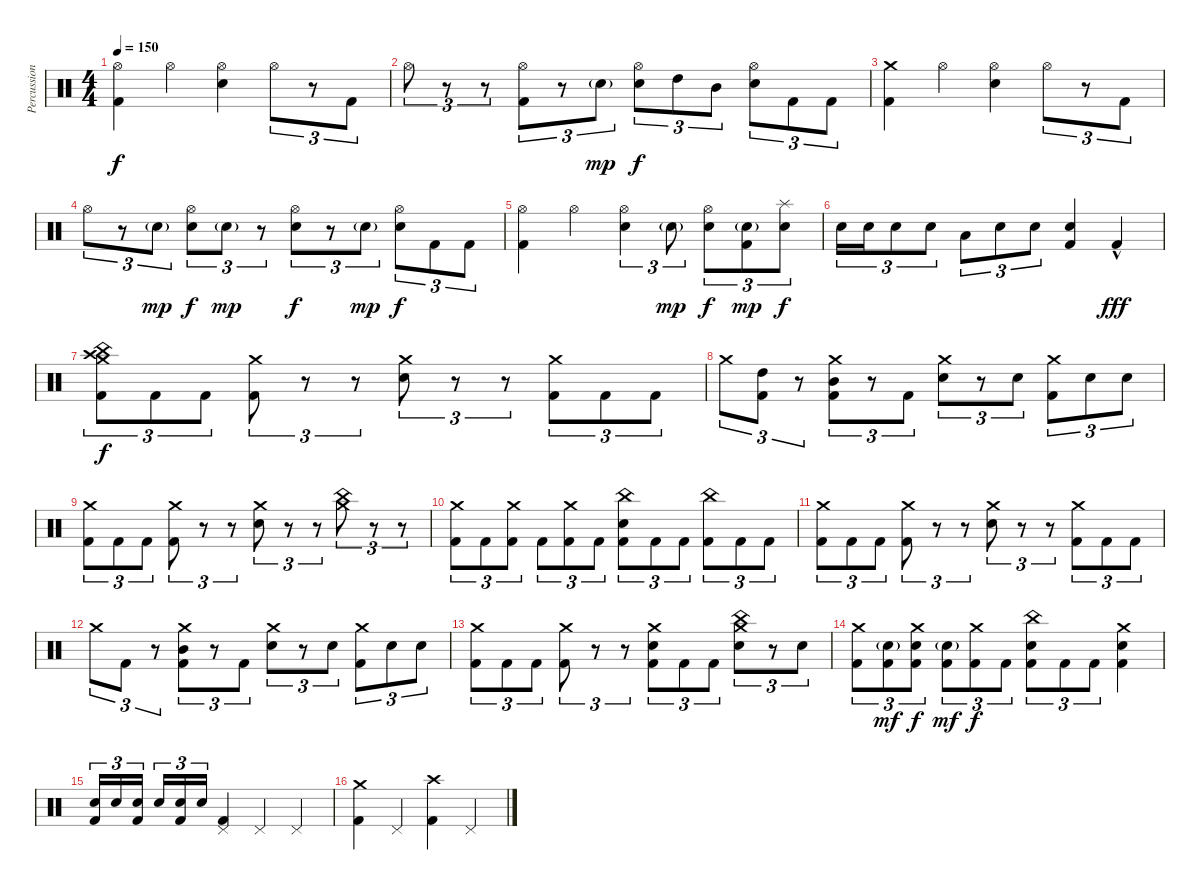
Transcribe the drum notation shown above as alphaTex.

\track ("Percussion" "Percussion") {instrument percussion}
\staff {score}
\articulation defaults
\ts (4 4)
\tempo 150
\clef neutral
\ks c
("Hi-Hat (open)" "Kick (hit) 2").4{dy f} "Hi-Hat (open)".4 ("Hi-Hat (open)" "Electric Snare (hit)").4 "Hi-Hat (open)".8{tu (3 2)} r.8{tu (3 2)} "Kick (hit) 2".8{tu (3 2)} |
"Hi-Hat (open)".8{tu (3 2)} r.8{tu (3 2)} r.8{tu (3 2)} ("Hi-Hat (open)" "Kick (hit) 2").8{tu (3 2)} r.8{tu (3 2)} "Electric Snare (hit)"{g}.8{tu (3 2) dy mp} ("Hi-Hat (open)" "Electric Snare (hit)").8{tu (3 2) dy f} "High Tom (hit)".8{tu (3 2)} "Mid Tom (hit)".8{tu (3 2)} ("Hi-Hat (open)" "Electric Snare (hit)").8{tu (3 2)} "Kick (hit) 2".8{tu (3 2)} "Kick (hit) 2".8{tu (3 2)} |
("Crash medium (hit)" "Kick (hit) 2").4 "Hi-Hat (open)".4 ("Hi-Hat (open)" "Electric Snare (hit)").4 "Hi-Hat (open)".8{tu (3 2)} r.8{tu (3 2)} "Kick (hit) 2".8{tu (3 2)} |
"Hi-Hat (open)".8{tu (3 2)} r.8{tu (3 2)} "Electric Snare (hit)"{g}.8{tu (3 2) dy mp} ("Hi-Hat (open)" "Electric Snare (hit)").8{tu (3 2) dy f} "Electric Snare (hit)"{g}.8{tu (3 2) dy mp} r.8{tu (3 2)} ("Hi-Hat (open)" "Electric Snare (hit)").8{tu (3 2) dy f} r.8{tu (3 2)} "Electric Snare (hit)"{g}.8{tu (3 2) dy mp} ("Hi-Hat (open)" "Electric Snare (hit)").8{tu (3 2) dy f} "Kick (hit) 2".8{tu (3 2)} "Kick (hit) 2".8{tu (3 2)} |
("Hi-Hat (open)" "Kick (hit) 2").4 "Hi-Hat (open)".4 ("Hi-Hat (open)" "Electric Snare (hit)").4{tu (3 2)} "Electric Snare (hit)"{g}.8{tu (3 2) dy mp} ("Hi-Hat (open)" "Electric Snare (hit)").8{tu (3 2) dy f} ("Electric Snare (hit)"{g} "Kick (hit) 2").8{tu (3 2) dy mp} ("Splash (hit)" "Electric Snare (hit)").8{tu (3 2) dy f} |
"Electric Snare (hit)".16{tu (3 2)} "Electric Snare (hit)".16{tu (3 2)} "Electric Snare (hit)".8{tu (3 2)} "Electric Snare (hit)".8{tu (3 2)} "Low Tom (hit)".8{tu (3 2)} "Electric Snare (hit)".8{tu (3 2)} "Electric Snare (hit)".8{tu (3 2)} ("Electric Snare (hit)" "Kick (hit) 2").4 "Kick (hit) 2"{hac}.4{dy fff} |
("Crash medium (hit)" "China (hit)" "Crash high (hit)" "Kick (hit) 2").8{tu (3 2) dy f} "Kick (hit) 2".8{tu (3 2)} "Kick (hit) 2".8{tu (3 2)} ("Crash medium (hit)" "Kick (hit) 2").8{tu (3 2)} r.8{tu (3 2)} r.8{tu (3 2)} ("Crash medium (hit)" "Electric Snare (hit)").8{tu (3 2)} r.8{tu (3 2)} r.8{tu (3 2)} ("Crash medium (hit)" "Kick (hit) 2").8{tu (3 2)} "Kick (hit) 2".8{tu (3 2)} "Kick (hit) 2".8{tu (3 2)} |
"Crash medium (hit)".8{tu (3 2)} ("High Tom (hit)" "Kick (hit) 2").8{tu (3 2)} r.8{tu (3 2)} ("Crash medium (hit)" "Mid Tom (hit)" "Kick (hit) 2").8{tu (3 2)} r.8{tu (3 2)} "Kick (hit) 2".8{tu (3 2)} ("Crash medium (hit)" "Electric Snare (hit)").8{tu (3 2)} r.8{tu (3 2)} "Electric Snare (hit)".8{tu (3 2)} ("Crash medium (hit)" "Kick (hit) 2").8{tu (3 2)} "Electric Snare (hit)".8{tu (3 2)} "Electric Snare (hit)".8{tu (3 2)} |
("Crash medium (hit)" "Kick (hit) 2").8{tu (3 2)} "Kick (hit) 2".8{tu (3 2)} "Kick (hit) 2".8{tu (3 2)} ("Crash medium (hit)" "Kick (hit) 2").8{tu (3 2)} r.8{tu (3 2)} r.8{tu (3 2)} ("Crash medium (hit)" "Electric Snare (hit)").8{tu (3 2)} r.8{tu (3 2)} r.8{tu (3 2)} ("Crash medium (hit)" "China (hit)").8{tu (3 2)} r.8{tu (3 2)} r.8{tu (3 2)} |
("Crash medium (hit)" "Kick (hit) 2").8{tu (3 2)} "Kick (hit) 2".8{tu (3 2)} ("Crash medium (hit)" "Kick (hit) 2").8{tu (3 2)} "Kick (hit) 2".8{tu (3 2)} ("Crash medium (hit)" "Kick (hit) 2").8{tu (3 2)} "Kick (hit) 2".8{tu (3 2)} ("China (hit)" "Electric Snare (hit)" "Kick (hit) 2").8{tu (3 2)} "Kick (hit) 2".8{tu (3 2)} "Kick (hit) 2".8{tu (3 2)} ("China (hit)" "Kick (hit) 2").8{tu (3 2)} "Kick (hit) 2".8{tu (3 2)} "Kick (hit) 2".8{tu (3 2)} |
("Crash medium (hit)" "Kick (hit) 2").8{tu (3 2)} "Kick (hit) 2".8{tu (3 2)} "Kick (hit) 2".8{tu (3 2)} ("Crash medium (hit)" "Kick (hit) 2").8{tu (3 2)} r.8{tu (3 2)} r.8{tu (3 2)} ("Crash medium (hit)" "Electric Snare (hit)").8{tu (3 2)} r.8{tu (3 2)} r.8{tu (3 2)} ("Crash medium (hit)" "Kick (hit) 2").8{tu (3 2)} "Kick (hit) 2".8{tu (3 2)} "Kick (hit) 2".8{tu (3 2)} |
"Crash medium (hit)".8{tu (3 2)} "Kick (hit) 2".8{tu (3 2)} r.8{tu (3 2)} ("Crash medium (hit)" "Mid Tom (hit)" "Kick (hit) 2").8{tu (3 2)} r.8{tu (3 2)} "Kick (hit) 2".8{tu (3 2)} ("Crash medium (hit)" "Electric Snare (hit)").8{tu (3 2)} r.8{tu (3 2)} "Electric Snare (hit)".8{tu (3 2)} ("Crash medium (hit)" "Kick (hit) 2").8{tu (3 2)} "Electric Snare (hit)".8{tu (3 2)} "Electric Snare (hit)".8{tu (3 2)} |
("Crash medium (hit)" "Kick (hit) 2").8{tu (3 2)} "Kick (hit) 2".8{tu (3 2)} "Kick (hit) 2".8{tu (3 2)} ("Crash medium (hit)" "Kick (hit) 2").8{tu (3 2)} r.8{tu (3 2)} r.8{tu (3 2)} ("Crash medium (hit)" "Electric Snare (hit)" "Kick (hit) 2").8{tu (3 2)} "Kick (hit) 2".8{tu (3 2)} "Kick (hit) 2".8{tu (3 2)} ("Crash medium (hit)" "China (hit)" "Electric Snare (hit)").8{tu (3 2)} r.8{tu (3 2)} "Electric Snare (hit)".8{tu (3 2)} |
("Crash medium (hit)" "Kick (hit) 2").8{tu (3 2)} ("Electric Snare (hit)"{g} "Kick (hit) 2").8{tu (3 2) dy mf} ("Crash medium (hit)" "Electric Snare (hit)" "Kick (hit) 2").8{tu (3 2) dy f} ("Electric Snare (hit)"{g} "Kick (hit) 2").8{tu (3 2) dy mf} ("Crash medium (hit)" "Kick (hit) 2").8{tu (3 2) dy f} "Kick (hit) 2".8{tu (3 2)} ("China (hit)" "Electric Snare (hit)" "Kick (hit) 2").8{tu (3 2)} "Kick (hit) 2".8{tu (3 2)} "Kick (hit) 2".8{tu (3 2)} ("Crash medium (hit)" "Electric Snare (hit)" "Kick (hit) 2").4 |
("Electric Snare (hit)" "Kick (hit) 2").16{tu (3 2)} "Electric Snare (hit)".16{tu (3 2)} ("Electric Snare (hit)" "Kick (hit) 2").16{tu (3 2) beam splitsecondary} "Electric Snare (hit)".16{tu (3 2)} ("Electric Snare (hit)" "Kick (hit) 2").16{tu (3 2)} "Electric Snare (hit)".16{tu (3 2)} ("Pedal Hi-Hat (hit)" "Kick (hit) 2").4 "Pedal Hi-Hat (hit)".4 "Pedal Hi-Hat (hit)".4 |
("Crash medium (hit)" "Kick (hit) 2").4 "Pedal Hi-Hat (hit)".4 ("Crash high (hit)" "Kick (hit) 2").4 "Pedal Hi-Hat (hit)".4
